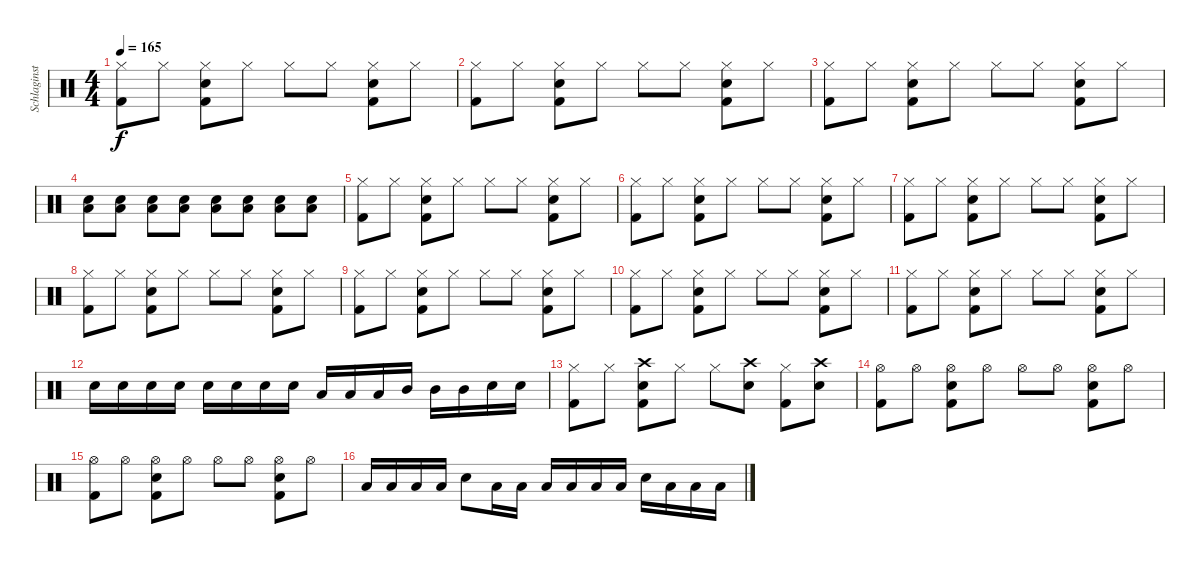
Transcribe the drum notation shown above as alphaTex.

\track ("Schlaginstrumente - Auswahl" "Schlaginst") {instrument percussion}
\staff {score}
\articulation defaults
\ts (4 4)
\tempo 165
\clef neutral
\ks c
("Kick (hit) 2" "Hi-Hat (closed)").8{dy f} "Hi-Hat (closed)".8 ("Kick (hit) 2" "Snare (hit) 2" "Hi-Hat (closed)").8 "Hi-Hat (closed)".8 "Hi-Hat (closed)".8 "Hi-Hat (closed)".8 ("Kick (hit) 2" "Snare (hit) 2" "Hi-Hat (closed)").8 "Hi-Hat (closed)".8 |
("Kick (hit) 2" "Hi-Hat (closed)").8 "Hi-Hat (closed)".8 ("Kick (hit) 2" "Snare (hit) 2" "Hi-Hat (closed)").8 "Hi-Hat (closed)".8 "Hi-Hat (closed)".8 "Hi-Hat (closed)".8 ("Kick (hit) 2" "Snare (hit) 2" "Hi-Hat (closed)").8 "Hi-Hat (closed)".8 |
("Kick (hit) 2" "Hi-Hat (closed)").8 "Hi-Hat (closed)".8 ("Kick (hit) 2" "Snare (hit) 2" "Hi-Hat (closed)").8 "Hi-Hat (closed)".8 "Hi-Hat (closed)".8 "Hi-Hat (closed)".8 ("Kick (hit) 2" "Snare (hit) 2" "Hi-Hat (closed)").8 "Hi-Hat (closed)".8 |
("Snare (hit) 2" "Low Tom (hit)").8 ("Snare (hit) 2" "Low Tom (hit)").8 ("Snare (hit) 2" "Low Tom (hit)").8 ("Snare (hit) 2" "Low Tom (hit)").8 ("Snare (hit) 2" "Low Tom (hit)").8 ("Snare (hit) 2" "Low Tom (hit)").8 ("Snare (hit) 2" "Low Tom (hit)").8 ("Snare (hit) 2" "Low Tom (hit)").8 |
("Kick (hit) 2" "Hi-Hat (closed)").8 "Hi-Hat (closed)".8 ("Kick (hit) 2" "Snare (hit) 2" "Hi-Hat (closed)").8 "Hi-Hat (closed)".8 "Hi-Hat (closed)".8 "Hi-Hat (closed)".8 ("Kick (hit) 2" "Snare (hit) 2" "Hi-Hat (closed)").8 "Hi-Hat (closed)".8 |
("Kick (hit) 2" "Hi-Hat (closed)").8 "Hi-Hat (closed)".8 ("Kick (hit) 2" "Snare (hit) 2" "Hi-Hat (closed)").8 "Hi-Hat (closed)".8 "Hi-Hat (closed)".8 "Hi-Hat (closed)".8 ("Kick (hit) 2" "Snare (hit) 2" "Hi-Hat (closed)").8 "Hi-Hat (closed)".8 |
("Kick (hit) 2" "Hi-Hat (closed)").8 "Hi-Hat (closed)".8 ("Kick (hit) 2" "Snare (hit) 2" "Hi-Hat (closed)").8 "Hi-Hat (closed)".8 "Hi-Hat (closed)".8 "Hi-Hat (closed)".8 ("Kick (hit) 2" "Snare (hit) 2" "Hi-Hat (closed)").8 "Hi-Hat (closed)".8 |
("Kick (hit) 2" "Hi-Hat (closed)").8 "Hi-Hat (closed)".8 ("Kick (hit) 2" "Snare (hit) 2" "Hi-Hat (closed)").8 "Hi-Hat (closed)".8 "Hi-Hat (closed)".8 "Hi-Hat (closed)".8 ("Kick (hit) 2" "Snare (hit) 2" "Hi-Hat (closed)").8 "Hi-Hat (closed)".8 |
("Kick (hit) 2" "Hi-Hat (closed)").8 "Hi-Hat (closed)".8 ("Kick (hit) 2" "Snare (hit) 2" "Hi-Hat (closed)").8 "Hi-Hat (closed)".8 "Hi-Hat (closed)".8 "Hi-Hat (closed)".8 ("Kick (hit) 2" "Snare (hit) 2" "Hi-Hat (closed)").8 "Hi-Hat (closed)".8 |
("Kick (hit) 2" "Hi-Hat (closed)").8 "Hi-Hat (closed)".8 ("Kick (hit) 2" "Snare (hit) 2" "Hi-Hat (closed)").8 "Hi-Hat (closed)".8 "Hi-Hat (closed)".8 "Hi-Hat (closed)".8 ("Kick (hit) 2" "Snare (hit) 2" "Hi-Hat (closed)").8 "Hi-Hat (closed)".8 |
("Kick (hit) 2" "Hi-Hat (closed)").8 "Hi-Hat (closed)".8 ("Kick (hit) 2" "Snare (hit) 2" "Hi-Hat (closed)").8 "Hi-Hat (closed)".8 "Hi-Hat (closed)".8 "Hi-Hat (closed)".8 ("Kick (hit) 2" "Snare (hit) 2" "Hi-Hat (closed)").8 "Hi-Hat (closed)".8 |
"Snare (hit) 2".16 "Snare (hit) 2".16 "Snare (hit) 2".16 "Snare (hit) 2".16 "Snare (hit) 2".16 "Snare (hit) 2".16 "Snare (hit) 2".16 "Snare (hit) 2".16 "Low Tom (hit)".16 "Low Tom (hit)".16 "Low Tom (hit)".16 "Mid Tom (hit)".16 "Mid Tom (hit)".16 "Mid Tom (hit)".16 "Snare (hit) 2".16 "Snare (hit) 2".16 |
("Kick (hit) 2" "Hi-Hat (closed)").8 "Hi-Hat (closed)".8 ("Kick (hit) 2" "Snare (hit) 2" "Crash high (hit)").8 "Hi-Hat (closed)".8 "Hi-Hat (closed)".8 ("Snare (hit) 2" "Crash high (hit)").8 ("Kick (hit) 2" "Hi-Hat (closed)").8 ("Snare (hit) 2" "Crash high (hit)").8 |
("Kick (hit) 2" "Hi-Hat (open)").8 "Hi-Hat (open)".8 ("Kick (hit) 2" "Snare (hit) 2" "Hi-Hat (open)").8 "Hi-Hat (open)".8 "Hi-Hat (open)".8 "Hi-Hat (open)".8 ("Kick (hit) 2" "Snare (hit) 2" "Hi-Hat (open)").8 "Hi-Hat (open)".8 |
("Kick (hit) 2" "Hi-Hat (open)").8 "Hi-Hat (open)".8 ("Kick (hit) 2" "Snare (hit) 2" "Hi-Hat (open)").8 "Hi-Hat (open)".8 "Hi-Hat (open)".8 "Hi-Hat (open)".8 ("Kick (hit) 2" "Snare (hit) 2" "Hi-Hat (open)").8 "Hi-Hat (open)".8 |
"Low Tom (hit)".16 "Low Tom (hit)".16 "Low Tom (hit)".16 "Low Tom (hit)".16 "Snare (hit) 2".8 "Low Tom (hit)".16 "Low Tom (hit)".16 "Low Tom (hit)".16 "Low Tom (hit)".16 "Low Tom (hit)".16 "Low Tom (hit)".16 "Snare (hit) 2".16 "Low Tom (hit)".16 "Low Tom (hit)".16 "Low Tom (hit)".16
